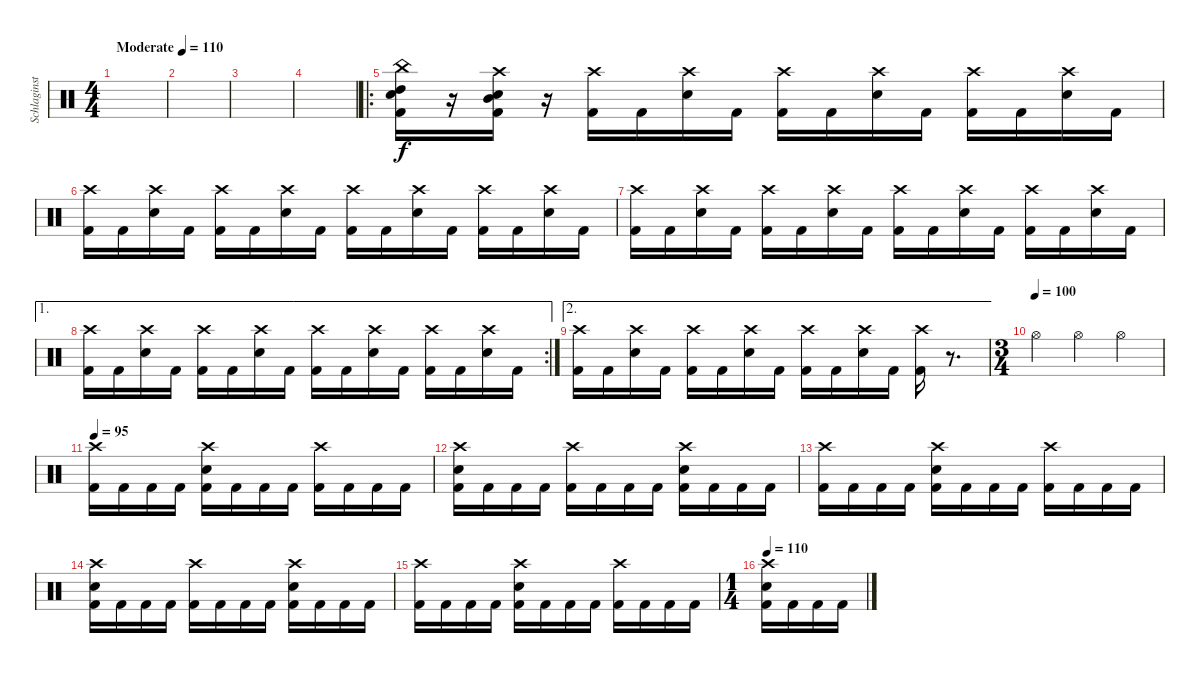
\track ("Schlaginstrumente - Auswahl" "Schlaginst") {instrument percussion}
\staff {score}
\articulation defaults
\ts (4 4)
\tempo (110 "Moderate")
\clef neutral
\ks c
|
|
|
|
\ro
("China (hit)" "High Tom (hit)" "Electric Snare (hit)" "Kick (hit) 2").16 r.16 ("Crash high (hit)" "Mid Tom (hit)" "Electric Snare (hit)" "Kick (hit) 2").16 r.16 ("Crash high (hit)" "Kick (hit) 2").16 "Kick (hit) 2".16 ("Crash high (hit)" "Electric Snare (hit)").16 "Kick (hit) 2".16 ("Crash high (hit)" "Kick (hit) 2").16 "Kick (hit) 2".16 ("Crash high (hit)" "Electric Snare (hit)").16 "Kick (hit) 2".16 ("Crash high (hit)" "Kick (hit) 2").16 "Kick (hit) 2".16 ("Crash high (hit)" "Electric Snare (hit)").16 "Kick (hit) 2".16 |
("Crash high (hit)" "Kick (hit) 2").16 "Kick (hit) 2".16 ("Crash high (hit)" "Electric Snare (hit)").16 "Kick (hit) 2".16 ("Crash high (hit)" "Kick (hit) 2").16 "Kick (hit) 2".16 ("Crash high (hit)" "Electric Snare (hit)").16 "Kick (hit) 2".16 ("Crash high (hit)" "Kick (hit) 2").16 "Kick (hit) 2".16 ("Crash high (hit)" "Electric Snare (hit)").16 "Kick (hit) 2".16 ("Crash high (hit)" "Kick (hit) 2").16 "Kick (hit) 2".16 ("Crash high (hit)" "Electric Snare (hit)").16 "Kick (hit) 2".16 |
("Crash high (hit)" "Kick (hit) 2").16 "Kick (hit) 2".16 ("Crash high (hit)" "Electric Snare (hit)").16 "Kick (hit) 2".16 ("Crash high (hit)" "Kick (hit) 2").16 "Kick (hit) 2".16 ("Crash high (hit)" "Electric Snare (hit)").16 "Kick (hit) 2".16 ("Crash high (hit)" "Kick (hit) 2").16 "Kick (hit) 2".16 ("Crash high (hit)" "Electric Snare (hit)").16 "Kick (hit) 2".16 ("Crash high (hit)" "Kick (hit) 2").16 "Kick (hit) 2".16 ("Crash high (hit)" "Electric Snare (hit)").16 "Kick (hit) 2".16 |
\ae 1
\rc 2
("Crash high (hit)" "Kick (hit) 2").16 "Kick (hit) 2".16 ("Crash high (hit)" "Electric Snare (hit)").16 "Kick (hit) 2".16 ("Crash high (hit)" "Kick (hit) 2").16 "Kick (hit) 2".16 ("Crash high (hit)" "Electric Snare (hit)").16 "Kick (hit) 2".16 ("Crash high (hit)" "Kick (hit) 2").16 "Kick (hit) 2".16 ("Crash high (hit)" "Electric Snare (hit)").16 "Kick (hit) 2".16 ("Crash high (hit)" "Kick (hit) 2").16 "Kick (hit) 2".16 ("Crash high (hit)" "Electric Snare (hit)").16 "Kick (hit) 2".16 |
\ae 2
("Crash high (hit)" "Kick (hit) 2").16 "Kick (hit) 2".16 ("Crash high (hit)" "Electric Snare (hit)").16 "Kick (hit) 2".16 ("Crash high (hit)" "Kick (hit) 2").16 "Kick (hit) 2".16 ("Crash high (hit)" "Electric Snare (hit)").16 "Kick (hit) 2".16 ("Crash high (hit)" "Kick (hit) 2").16 "Kick (hit) 2".16 ("Crash high (hit)" "Electric Snare (hit)").16 "Kick (hit) 2".16 ("Crash high (hit)" "Kick (hit) 2").16 r.8{d} |
\ts (3 4)
\tempo (100)
"Hi-Hat (open)".4 "Hi-Hat (open)".4 "Hi-Hat (open)".4 |
\tempo 95
("Crash high (hit)" "Kick (hit) 2").16 "Kick (hit) 2".16 "Kick (hit) 2".16 "Kick (hit) 2".16 ("Crash high (hit)" "Electric Snare (hit)" "Kick (hit) 2").16 "Kick (hit) 2".16 "Kick (hit) 2".16 "Kick (hit) 2".16 ("Crash high (hit)" "Kick (hit) 2").16 "Kick (hit) 2".16 "Kick (hit) 2".16 "Kick (hit) 2".16 |
("Crash high (hit)" "Electric Snare (hit)" "Kick (hit) 2").16 "Kick (hit) 2".16 "Kick (hit) 2".16 "Kick (hit) 2".16 ("Crash high (hit)" "Kick (hit) 2").16 "Kick (hit) 2".16 "Kick (hit) 2".16 "Kick (hit) 2".16 ("Crash high (hit)" "Electric Snare (hit)" "Kick (hit) 2").16 "Kick (hit) 2".16 "Kick (hit) 2".16 "Kick (hit) 2".16 |
("Crash high (hit)" "Kick (hit) 2").16 "Kick (hit) 2".16 "Kick (hit) 2".16 "Kick (hit) 2".16 ("Crash high (hit)" "Electric Snare (hit)" "Kick (hit) 2").16 "Kick (hit) 2".16 "Kick (hit) 2".16 "Kick (hit) 2".16 ("Crash high (hit)" "Kick (hit) 2").16 "Kick (hit) 2".16 "Kick (hit) 2".16 "Kick (hit) 2".16 |
("Crash high (hit)" "Electric Snare (hit)" "Kick (hit) 2").16 "Kick (hit) 2".16 "Kick (hit) 2".16 "Kick (hit) 2".16 ("Crash high (hit)" "Kick (hit) 2").16 "Kick (hit) 2".16 "Kick (hit) 2".16 "Kick (hit) 2".16 ("Crash high (hit)" "Electric Snare (hit)" "Kick (hit) 2").16 "Kick (hit) 2".16 "Kick (hit) 2".16 "Kick (hit) 2".16 |
("Crash high (hit)" "Kick (hit) 2").16 "Kick (hit) 2".16 "Kick (hit) 2".16 "Kick (hit) 2".16 ("Crash high (hit)" "Electric Snare (hit)" "Kick (hit) 2").16 "Kick (hit) 2".16 "Kick (hit) 2".16 "Kick (hit) 2".16 ("Crash high (hit)" "Kick (hit) 2").16 "Kick (hit) 2".16 "Kick (hit) 2".16 "Kick (hit) 2".16 |
\ts (1 4)
\tempo 110
("Crash high (hit)" "Electric Snare (hit)" "Kick (hit) 2").16 "Kick (hit) 2".16 "Kick (hit) 2".16 "Kick (hit) 2".16
